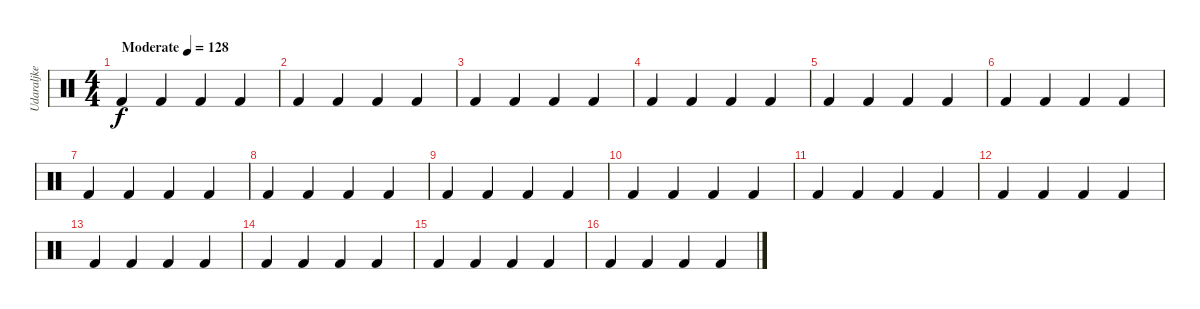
\track ("Udaraljke" "Udaraljke") {instrument percussion}
\staff {score}
\articulation defaults
\ts (4 4)
\tempo (128 "Moderate")
\clef neutral
\ks c "Kick (hit) 2".4{dy f} "Kick (hit) 2".4 "Kick (hit) 2".4 "Kick (hit) 2".4
|
"Kick (hit) 2".4 "Kick (hit) 2".4 "Kick (hit) 2".4 "Kick (hit) 2".4 |
"Kick (hit) 2".4 "Kick (hit) 2".4 "Kick (hit) 2".4 "Kick (hit) 2".4 |
"Kick (hit) 2".4 "Kick (hit) 2".4 "Kick (hit) 2".4 "Kick (hit) 2".4 |
"Kick (hit) 2".4 "Kick (hit) 2".4 "Kick (hit) 2".4 "Kick (hit) 2".4 |
"Kick (hit) 2".4 "Kick (hit) 2".4 "Kick (hit) 2".4 "Kick (hit) 2".4 |
"Kick (hit) 2".4 "Kick (hit) 2".4 "Kick (hit) 2".4 "Kick (hit) 2".4 |
"Kick (hit) 2".4 "Kick (hit) 2".4 "Kick (hit) 2".4 "Kick (hit) 2".4 |
"Kick (hit) 2".4 "Kick (hit) 2".4 "Kick (hit) 2".4 "Kick (hit) 2".4 |
"Kick (hit) 2".4 "Kick (hit) 2".4 "Kick (hit) 2".4 "Kick (hit) 2".4 |
"Kick (hit) 2".4 "Kick (hit) 2".4 "Kick (hit) 2".4 "Kick (hit) 2".4 |
"Kick (hit) 2".4 "Kick (hit) 2".4 "Kick (hit) 2".4 "Kick (hit) 2".4 |
"Kick (hit) 2".4 "Kick (hit) 2".4 "Kick (hit) 2".4 "Kick (hit) 2".4 |
"Kick (hit) 2".4 "Kick (hit) 2".4 "Kick (hit) 2".4 "Kick (hit) 2".4 |
"Kick (hit) 2".4 "Kick (hit) 2".4 "Kick (hit) 2".4 "Kick (hit) 2".4 |
"Kick (hit) 2".4 "Kick (hit) 2".4 "Kick (hit) 2".4 "Kick (hit) 2".4
